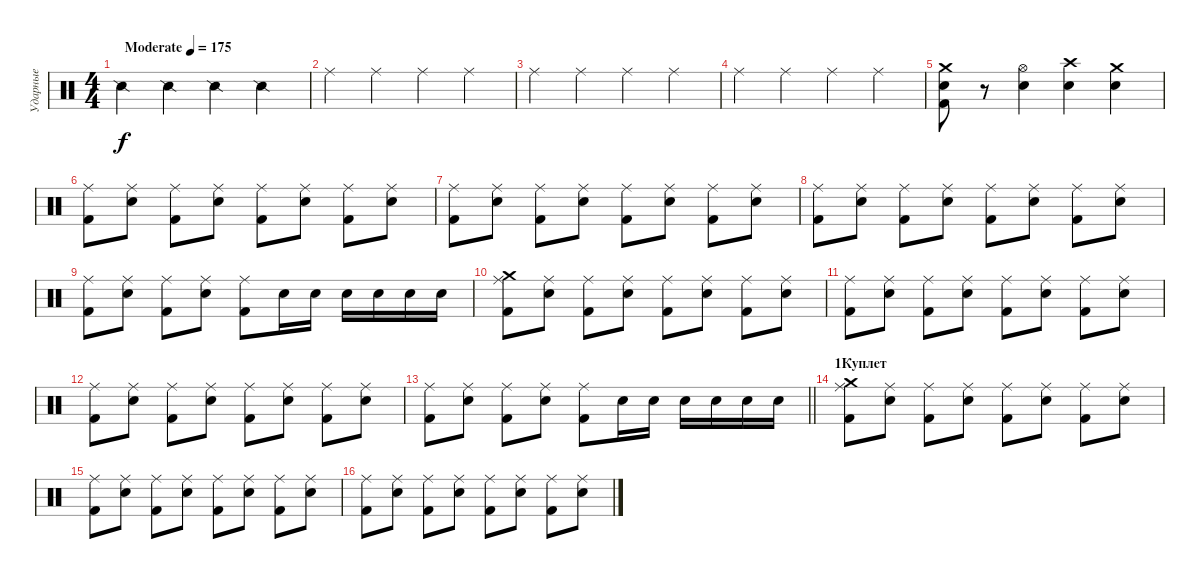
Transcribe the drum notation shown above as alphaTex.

\track ("Ударные" "Ударные") {instrument percussion}
\staff {score}
\articulation defaults
\ts (4 4)
\tempo (175 "Moderate")
\clef neutral
\ks c "Snare (side stick) 2".4{dy f} "Snare (side stick) 2".4 "Snare (side stick) 2".4 "Snare (side stick) 2".4
|
"Ride (middle)".4 "Ride (middle)".4 "Ride (middle)".4 "Ride (middle)".4 |
"Ride (middle)".4 "Ride (middle)".4 "Ride (middle)".4 "Ride (middle)".4 |
"Ride (middle)".4 "Ride (middle)".4 "Ride (middle)".4 "Ride (middle)".4 |
("Crash medium (hit)" "Electric Snare (hit)" "Kick (hit) 2").8 r.8 ("Electric Snare (hit)" "Hi-Hat (open)").4 ("Electric Snare (hit)" "Crash high (hit)").4 ("Electric Snare (hit)" "Crash medium (hit)").4 |
("Ride (middle)" "Kick (hit) 2").8 ("Ride (middle)" "Electric Snare (hit)").8 ("Ride (middle)" "Kick (hit) 2").8 ("Ride (middle)" "Electric Snare (hit)").8 ("Ride (middle)" "Kick (hit) 2").8 ("Ride (middle)" "Electric Snare (hit)").8 ("Ride (middle)" "Kick (hit) 2").8 ("Ride (middle)" "Electric Snare (hit)").8 |
("Ride (middle)" "Kick (hit) 2").8 ("Ride (middle)" "Electric Snare (hit)").8 ("Ride (middle)" "Kick (hit) 2").8 ("Ride (middle)" "Electric Snare (hit)").8 ("Ride (middle)" "Kick (hit) 2").8 ("Ride (middle)" "Electric Snare (hit)").8 ("Ride (middle)" "Kick (hit) 2").8 ("Ride (middle)" "Electric Snare (hit)").8 |
("Ride (middle)" "Kick (hit) 2").8 ("Ride (middle)" "Electric Snare (hit)").8 ("Ride (middle)" "Kick (hit) 2").8 ("Ride (middle)" "Electric Snare (hit)").8 ("Ride (middle)" "Kick (hit) 2").8 ("Ride (middle)" "Electric Snare (hit)").8 ("Ride (middle)" "Kick (hit) 2").8 ("Ride (middle)" "Electric Snare (hit)").8 |
("Ride (middle)" "Kick (hit) 2").8 ("Ride (middle)" "Electric Snare (hit)").8 ("Ride (middle)" "Kick (hit) 2").8 ("Ride (middle)" "Electric Snare (hit)").8 ("Ride (middle)" "Kick (hit) 2").8 "Electric Snare (hit)".16 "Electric Snare (hit)".16 "Electric Snare (hit)".16 "Electric Snare (hit)".16 "Electric Snare (hit)".16 "Electric Snare (hit)".16 |
("Ride (middle)" "Crash medium (hit)" "Kick (hit) 2").8 ("Ride (middle)" "Electric Snare (hit)").8 ("Ride (middle)" "Kick (hit) 2").8 ("Ride (middle)" "Electric Snare (hit)").8 ("Ride (middle)" "Kick (hit) 2").8 ("Ride (middle)" "Electric Snare (hit)").8 ("Ride (middle)" "Kick (hit) 2").8 ("Ride (middle)" "Electric Snare (hit)").8 |
("Ride (middle)" "Kick (hit) 2").8 ("Ride (middle)" "Electric Snare (hit)").8 ("Ride (middle)" "Kick (hit) 2").8 ("Ride (middle)" "Electric Snare (hit)").8 ("Ride (middle)" "Kick (hit) 2").8 ("Ride (middle)" "Electric Snare (hit)").8 ("Ride (middle)" "Kick (hit) 2").8 ("Ride (middle)" "Electric Snare (hit)").8 |
("Ride (middle)" "Kick (hit) 2").8 ("Ride (middle)" "Electric Snare (hit)").8 ("Ride (middle)" "Kick (hit) 2").8 ("Ride (middle)" "Electric Snare (hit)").8 ("Ride (middle)" "Kick (hit) 2").8 ("Ride (middle)" "Electric Snare (hit)").8 ("Ride (middle)" "Kick (hit) 2").8 ("Ride (middle)" "Electric Snare (hit)").8 |
\barLineRight lightlight
("Ride (middle)" "Kick (hit) 2").8 ("Ride (middle)" "Electric Snare (hit)").8 ("Ride (middle)" "Kick (hit) 2").8 ("Ride (middle)" "Electric Snare (hit)").8 ("Ride (middle)" "Kick (hit) 2").8 "Electric Snare (hit)".16 "Electric Snare (hit)".16 "Electric Snare (hit)".16 "Electric Snare (hit)".16 "Electric Snare (hit)".16 "Electric Snare (hit)".16 |
\section ("" "1Куплет")
("Ride (middle)" "Crash medium (hit)" "Kick (hit) 2").8 ("Ride (middle)" "Electric Snare (hit)").8 ("Ride (middle)" "Kick (hit) 2").8 ("Ride (middle)" "Electric Snare (hit)").8 ("Ride (middle)" "Kick (hit) 2").8 ("Ride (middle)" "Electric Snare (hit)").8 ("Ride (middle)" "Kick (hit) 2").8 ("Ride (middle)" "Electric Snare (hit)").8 |
("Ride (middle)" "Kick (hit) 2").8 ("Ride (middle)" "Electric Snare (hit)").8 ("Ride (middle)" "Kick (hit) 2").8 ("Ride (middle)" "Electric Snare (hit)").8 ("Ride (middle)" "Kick (hit) 2").8 ("Ride (middle)" "Electric Snare (hit)").8 ("Ride (middle)" "Kick (hit) 2").8 ("Ride (middle)" "Electric Snare (hit)").8 |
("Ride (middle)" "Kick (hit) 2").8 ("Ride (middle)" "Electric Snare (hit)").8 ("Ride (middle)" "Kick (hit) 2").8 ("Ride (middle)" "Electric Snare (hit)").8 ("Ride (middle)" "Kick (hit) 2").8 ("Ride (middle)" "Electric Snare (hit)").8 ("Ride (middle)" "Kick (hit) 2").8 ("Ride (middle)" "Electric Snare (hit)").8
